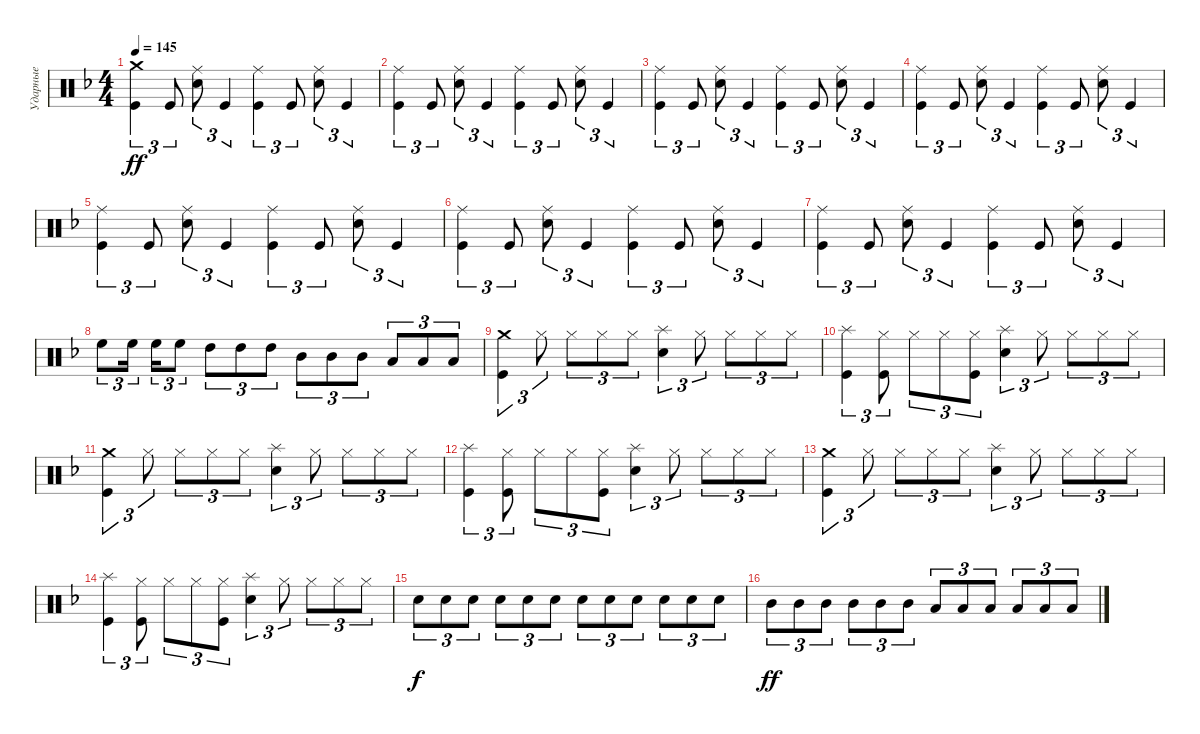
\track ("Ударные" "Ударные") {instrument percussion}
\staff {score}
\articulation defaults
\ts (4 4)
\tempo 145
\clef neutral
\ks dminor
("Crash medium (hit)" "Kick (hit)").4{tu (3 2) dy ff} "Kick (hit)".8{tu (3 2)} ("Ride (middle)" "Electric Snare (hit)").8{tu (3 2)} "Kick (hit)".4{tu (3 2)} ("Ride (middle)" "Kick (hit)").4{tu (3 2)} "Kick (hit)".8{tu (3 2)} ("Ride (middle)" "Electric Snare (hit)").8{tu (3 2)} "Kick (hit)".4{tu (3 2)} |
("Ride (middle)" "Kick (hit)").4{tu (3 2)} "Kick (hit)".8{tu (3 2)} ("Ride (middle)" "Electric Snare (hit)").8{tu (3 2)} "Kick (hit)".4{tu (3 2)} ("Ride (middle)" "Kick (hit)").4{tu (3 2)} "Kick (hit)".8{tu (3 2)} ("Ride (middle)" "Electric Snare (hit)").8{tu (3 2)} "Kick (hit)".4{tu (3 2)} |
("Ride (middle)" "Kick (hit)").4{tu (3 2)} "Kick (hit)".8{tu (3 2)} ("Ride (middle)" "Electric Snare (hit)").8{tu (3 2)} "Kick (hit)".4{tu (3 2)} ("Ride (middle)" "Kick (hit)").4{tu (3 2)} "Kick (hit)".8{tu (3 2)} ("Ride (middle)" "Electric Snare (hit)").8{tu (3 2)} "Kick (hit)".4{tu (3 2)} |
("Ride (middle)" "Kick (hit)").4{tu (3 2)} "Kick (hit)".8{tu (3 2)} ("Ride (middle)" "Electric Snare (hit)").8{tu (3 2)} "Kick (hit)".4{tu (3 2)} ("Ride (middle)" "Kick (hit)").4{tu (3 2)} "Kick (hit)".8{tu (3 2)} ("Ride (middle)" "Electric Snare (hit)").8{tu (3 2)} "Kick (hit)".4{tu (3 2)} |
("Ride (middle)" "Kick (hit)").4{tu (3 2)} "Kick (hit)".8{tu (3 2)} ("Ride (middle)" "Electric Snare (hit)").8{tu (3 2)} "Kick (hit)".4{tu (3 2)} ("Ride (middle)" "Kick (hit)").4{tu (3 2)} "Kick (hit)".8{tu (3 2)} ("Ride (middle)" "Electric Snare (hit)").8{tu (3 2)} "Kick (hit)".4{tu (3 2)} |
("Ride (middle)" "Kick (hit)").4{tu (3 2)} "Kick (hit)".8{tu (3 2)} ("Ride (middle)" "Electric Snare (hit)").8{tu (3 2)} "Kick (hit)".4{tu (3 2)} ("Ride (middle)" "Kick (hit)").4{tu (3 2)} "Kick (hit)".8{tu (3 2)} ("Ride (middle)" "Electric Snare (hit)").8{tu (3 2)} "Kick (hit)".4{tu (3 2)} |
("Ride (middle)" "Kick (hit)").4{tu (3 2)} "Kick (hit)".8{tu (3 2)} ("Ride (middle)" "Electric Snare (hit)").8{tu (3 2)} "Kick (hit)".4{tu (3 2)} ("Ride (middle)" "Kick (hit)").4{tu (3 2)} "Kick (hit)".8{tu (3 2)} ("Ride (middle)" "Electric Snare (hit)").8{tu (3 2)} "Kick (hit)".4{tu (3 2)} |
"High Floor Tom (hit)".8{tu (3 2)} "High Floor Tom (hit)".16{tu (3 2) beam splitsecondary} "High Floor Tom (hit)".16{tu (3 2)} "High Floor Tom (hit)".8{tu (3 2)} "High Tom (hit)".8{tu (3 2)} "High Tom (hit)".8{tu (3 2)} "High Tom (hit)".8{tu (3 2)} "Mid Tom (hit)".8{tu (3 2)} "Mid Tom (hit)".8{tu (3 2)} "Mid Tom (hit)".8{tu (3 2)} "Low Tom (hit)".8{tu (3 2)} "Low Tom (hit)".8{tu (3 2)} "Low Tom (hit)".8{tu (3 2)} |
("Crash medium (hit)" "Kick (hit)").4{tu (3 2)} "Hi-Hat (closed)".8{tu (3 2)} "Hi-Hat (closed)".8{tu (3 2)} "Hi-Hat (closed)".8{tu (3 2)} "Hi-Hat (closed)".8{tu (3 2)} ("Splash (hit)" "Electric Snare (hit)").4{tu (3 2)} "Hi-Hat (closed)".8{tu (3 2)} "Hi-Hat (closed)".8{tu (3 2)} "Hi-Hat (closed)".8{tu (3 2)} "Hi-Hat (closed)".8{tu (3 2)} |
("Splash (hit)" "Kick (hit)").4{tu (3 2)} ("Kick (hit)" "Hi-Hat (closed)").8{tu (3 2)} "Hi-Hat (closed)".8{tu (3 2)} "Hi-Hat (closed)".8{tu (3 2)} ("Kick (hit)" "Hi-Hat (closed)").8{tu (3 2)} ("Splash (hit)" "Electric Snare (hit)").4{tu (3 2)} "Hi-Hat (closed)".8{tu (3 2)} "Hi-Hat (closed)".8{tu (3 2)} "Hi-Hat (closed)".8{tu (3 2)} "Hi-Hat (closed)".8{tu (3 2)} |
("Crash medium (hit)" "Kick (hit)").4{tu (3 2)} "Hi-Hat (closed)".8{tu (3 2)} "Hi-Hat (closed)".8{tu (3 2)} "Hi-Hat (closed)".8{tu (3 2)} "Hi-Hat (closed)".8{tu (3 2)} ("Splash (hit)" "Electric Snare (hit)").4{tu (3 2)} "Hi-Hat (closed)".8{tu (3 2)} "Hi-Hat (closed)".8{tu (3 2)} "Hi-Hat (closed)".8{tu (3 2)} "Hi-Hat (closed)".8{tu (3 2)} |
("Splash (hit)" "Kick (hit)").4{tu (3 2)} ("Kick (hit)" "Hi-Hat (closed)").8{tu (3 2)} "Hi-Hat (closed)".8{tu (3 2)} "Hi-Hat (closed)".8{tu (3 2)} ("Kick (hit)" "Hi-Hat (closed)").8{tu (3 2)} ("Splash (hit)" "Electric Snare (hit)").4{tu (3 2)} "Hi-Hat (closed)".8{tu (3 2)} "Hi-Hat (closed)".8{tu (3 2)} "Hi-Hat (closed)".8{tu (3 2)} "Hi-Hat (closed)".8{tu (3 2)} |
("Crash medium (hit)" "Kick (hit)").4{tu (3 2)} "Hi-Hat (closed)".8{tu (3 2)} "Hi-Hat (closed)".8{tu (3 2)} "Hi-Hat (closed)".8{tu (3 2)} "Hi-Hat (closed)".8{tu (3 2)} ("Splash (hit)" "Electric Snare (hit)").4{tu (3 2)} "Hi-Hat (closed)".8{tu (3 2)} "Hi-Hat (closed)".8{tu (3 2)} "Hi-Hat (closed)".8{tu (3 2)} "Hi-Hat (closed)".8{tu (3 2)} |
("Splash (hit)" "Kick (hit)").4{tu (3 2)} ("Kick (hit)" "Hi-Hat (closed)").8{tu (3 2)} "Hi-Hat (closed)".8{tu (3 2)} "Hi-Hat (closed)".8{tu (3 2)} ("Kick (hit)" "Hi-Hat (closed)").8{tu (3 2)} ("Splash (hit)" "Electric Snare (hit)").4{tu (3 2)} "Hi-Hat (closed)".8{tu (3 2)} "Hi-Hat (closed)".8{tu (3 2)} "Hi-Hat (closed)".8{tu (3 2)} "Hi-Hat (closed)".8{tu (3 2)} |
"Electric Snare (hit)".8{tu (3 2) dy f} "Electric Snare (hit)".8{tu (3 2)} "Electric Snare (hit)".8{tu (3 2)} "Electric Snare (hit)".8{tu (3 2)} "Electric Snare (hit)".8{tu (3 2)} "Electric Snare (hit)".8{tu (3 2)} "Electric Snare (hit)".8{tu (3 2)} "Electric Snare (hit)".8{tu (3 2)} "Electric Snare (hit)".8{tu (3 2)} "Electric Snare (hit)".8{tu (3 2)} "Electric Snare (hit)".8{tu (3 2)} "Electric Snare (hit)".8{tu (3 2)} |
"Mid Tom (hit)".8{tu (3 2) dy ff} "Mid Tom (hit)".8{tu (3 2)} "Mid Tom (hit)".8{tu (3 2)} "Mid Tom (hit)".8{tu (3 2)} "Mid Tom (hit)".8{tu (3 2)} "Mid Tom (hit)".8{tu (3 2)} "Low Tom (hit)".8{tu (3 2)} "Low Tom (hit)".8{tu (3 2)} "Low Tom (hit)".8{tu (3 2)} "Low Tom (hit)".8{tu (3 2)} "Low Tom (hit)".8{tu (3 2)} "Low Tom (hit)".8{tu (3 2)}
